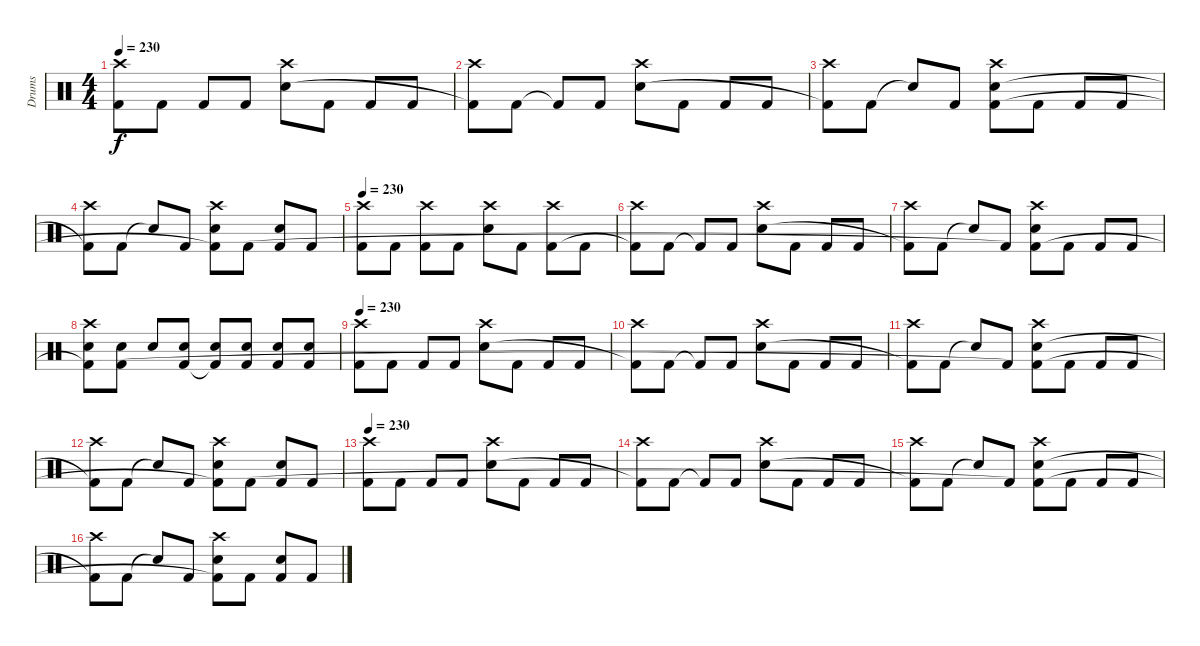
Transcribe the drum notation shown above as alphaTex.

\track ("Drums" "Drums") {instrument percussion}
\staff {score}
\articulation defaults
\ts (4 4)
\tempo 230
\clef neutral
\ks c
("Crash high (hit)" "Kick (hit) 2").8{dy f} "Kick (hit) 2".8 "Kick (hit) 2".8 "Kick (hit) 2".8 ("Crash high (hit)" "Electric Snare (hit)").8 "Kick (hit) 2".8 "Kick (hit) 2".8 "Kick (hit) 2".8 |
("Crash high (hit)" "Kick (hit) 2"{t}).8 "Kick (hit) 2".8 "Kick (hit) 2"{t}.8 "Kick (hit) 2".8 ("Crash high (hit)" "Electric Snare (hit)").8 "Kick (hit) 2".8 "Kick (hit) 2".8 "Kick (hit) 2".8 |
("Crash high (hit)" "Kick (hit) 2"{t}).8 "Kick (hit) 2".8 "Snare (hit)"{t}.8 "Kick (hit) 2".8 ("Crash high (hit)" "Electric Snare (hit)" "Kick (hit) 2"{t}).8 "Kick (hit) 2".8 "Kick (hit) 2".8 "Kick (hit) 2".8 |
("Crash high (hit)" "Kick (hit) 2"{t}).8 "Kick (hit) 2".8 "Snare (hit)"{t}.8 "Kick (hit) 2".8 ("Crash high (hit)" "Electric Snare (hit)" "Kick (hit) 2"{t}).8 "Kick (hit) 2".8 ("Electric Snare (hit)" "Kick (hit) 2").8 "Kick (hit) 2".8 |
\tempo 230
("Crash high (hit)" "Kick (hit) 2").8 "Kick (hit) 2".8 ("Crash high (hit)" "Kick (hit) 2").8 "Kick (hit) 2".8 ("Crash high (hit)" "Electric Snare (hit)").8 "Kick (hit) 2".8 ("Crash high (hit)" "Kick (hit) 2").8 "Kick (hit) 2".8 |
("Crash high (hit)" "Kick (hit) 2"{t}).8 "Kick (hit) 2".8 "Kick (hit) 2"{t}.8 "Kick (hit) 2".8 ("Crash high (hit)" "Electric Snare (hit)").8 "Kick (hit) 2".8 "Kick (hit) 2".8 "Kick (hit) 2".8 |
("Crash high (hit)" "Kick (hit) 2"{t}).8 "Kick (hit) 2".8 "Snare (hit)"{t}.8 "Kick (hit) 2".8 ("Crash high (hit)" "Electric Snare (hit)" "Kick (hit) 2"{t}).8 "Kick (hit) 2".8 "Kick (hit) 2".8 "Kick (hit) 2".8 |
("Crash high (hit)" "Electric Snare (hit)" "Kick (hit) 2"{t}).8 ("Electric Snare (hit)" "Kick (hit) 2").8 "Electric Snare (hit)".8 ("Electric Snare (hit)" "Kick (hit) 2").8 ("Electric Snare (hit)" "Kick (hit) 2"{t}).8 ("Electric Snare (hit)" "Kick (hit) 2").8 ("Electric Snare (hit)" "Kick (hit) 2").8 ("Electric Snare (hit)" "Kick (hit) 2").8 |
\tempo 230
("Crash high (hit)" "Kick (hit) 2").8 "Kick (hit) 2".8 "Kick (hit) 2".8 "Kick (hit) 2".8 ("Crash high (hit)" "Electric Snare (hit)").8 "Kick (hit) 2".8 "Kick (hit) 2".8 "Kick (hit) 2".8 |
("Crash high (hit)" "Kick (hit) 2"{t}).8 "Kick (hit) 2".8 "Kick (hit) 2"{t}.8 "Kick (hit) 2".8 ("Crash high (hit)" "Electric Snare (hit)").8 "Kick (hit) 2".8 "Kick (hit) 2".8 "Kick (hit) 2".8 |
("Crash high (hit)" "Kick (hit) 2"{t}).8 "Kick (hit) 2".8 "Snare (hit)"{t}.8 "Kick (hit) 2".8 ("Crash high (hit)" "Electric Snare (hit)" "Kick (hit) 2"{t}).8 "Kick (hit) 2".8 "Kick (hit) 2".8 "Kick (hit) 2".8 |
("Crash high (hit)" "Kick (hit) 2"{t}).8 "Kick (hit) 2".8 "Snare (hit)"{t}.8 "Kick (hit) 2".8 ("Crash high (hit)" "Electric Snare (hit)" "Kick (hit) 2"{t}).8 "Kick (hit) 2".8 ("Electric Snare (hit)" "Kick (hit) 2").8 "Kick (hit) 2".8 |
\tempo 230
("Crash high (hit)" "Kick (hit) 2").8 "Kick (hit) 2".8 "Kick (hit) 2".8 "Kick (hit) 2".8 ("Crash high (hit)" "Electric Snare (hit)").8 "Kick (hit) 2".8 "Kick (hit) 2".8 "Kick (hit) 2".8 |
("Crash high (hit)" "Kick (hit) 2"{t}).8 "Kick (hit) 2".8 "Kick (hit) 2"{t}.8 "Kick (hit) 2".8 ("Crash high (hit)" "Electric Snare (hit)").8 "Kick (hit) 2".8 "Kick (hit) 2".8 "Kick (hit) 2".8 |
("Crash high (hit)" "Kick (hit) 2"{t}).8 "Kick (hit) 2".8 "Snare (hit)"{t}.8 "Kick (hit) 2".8 ("Crash high (hit)" "Electric Snare (hit)" "Kick (hit) 2"{t}).8 "Kick (hit) 2".8 "Kick (hit) 2".8 "Kick (hit) 2".8 |
("Crash high (hit)" "Kick (hit) 2"{t}).8 "Kick (hit) 2".8 "Snare (hit)"{t}.8 "Kick (hit) 2".8 ("Crash high (hit)" "Electric Snare (hit)" "Kick (hit) 2"{t}).8 "Kick (hit) 2".8 ("Electric Snare (hit)" "Kick (hit) 2").8 "Kick (hit) 2".8
